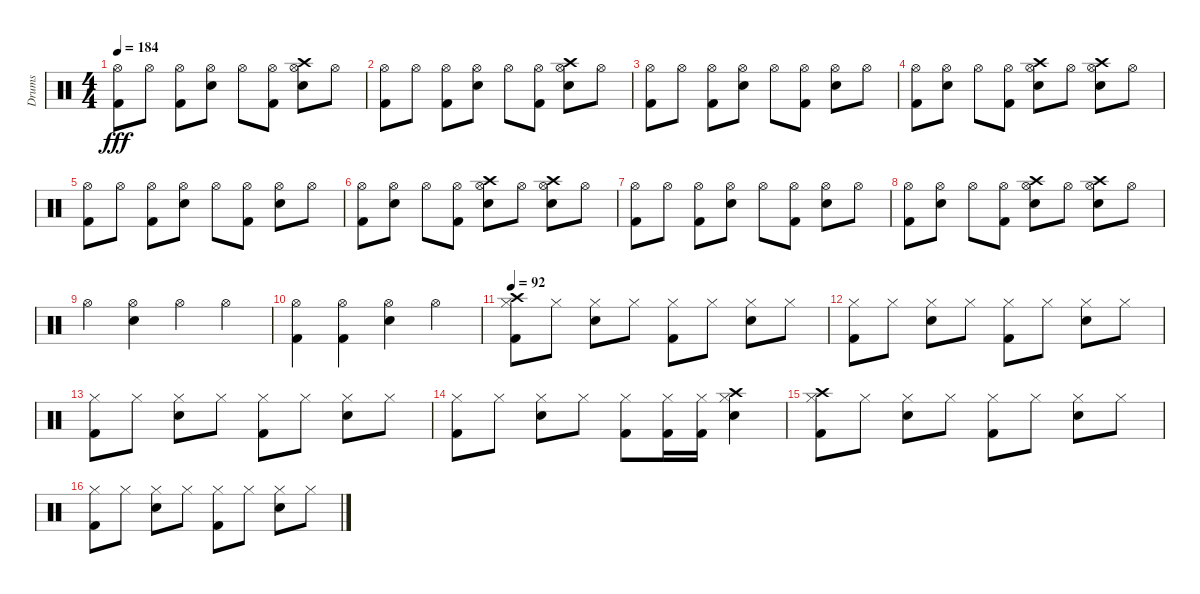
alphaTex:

\track ("Drums" "Drums") {instrument percussion}
\staff {score}
\articulation defaults
\ts (4 4)
\tempo 184
\clef neutral
\ks c
("Hi-Hat (open)" "Kick (hit) 2").8{dy fff} "Hi-Hat (open)".8 ("Hi-Hat (open)" "Kick (hit) 2").8 ("Hi-Hat (open)" "Snare (hit) 2").8 "Hi-Hat (open)".8 ("Hi-Hat (open)" "Kick (hit) 2").8 ("Hi-Hat (open)" "Snare (hit) 2" "Crash high (hit)").8 "Hi-Hat (open)".8 |
("Hi-Hat (open)" "Kick (hit) 2").8 "Hi-Hat (open)".8 ("Hi-Hat (open)" "Kick (hit) 2").8 ("Hi-Hat (open)" "Snare (hit) 2").8 "Hi-Hat (open)".8 ("Hi-Hat (open)" "Kick (hit) 2").8 ("Hi-Hat (open)" "Snare (hit) 2" "Crash high (hit)").8 "Hi-Hat (open)".8 |
("Hi-Hat (open)" "Kick (hit) 2").8 "Hi-Hat (open)".8 ("Hi-Hat (open)" "Kick (hit) 2").8 ("Hi-Hat (open)" "Snare (hit) 2").8 "Hi-Hat (open)".8 ("Hi-Hat (open)" "Kick (hit) 2").8 ("Hi-Hat (open)" "Snare (hit) 2").8 "Hi-Hat (open)".8 |
("Hi-Hat (open)" "Kick (hit) 2").8 ("Hi-Hat (open)" "Snare (hit) 2").8 "Hi-Hat (open)".8 ("Hi-Hat (open)" "Kick (hit) 2").8 ("Hi-Hat (open)" "Snare (hit) 2" "Crash high (hit)").8 "Hi-Hat (open)".8 ("Hi-Hat (open)" "Snare (hit) 2" "Crash high (hit)").8 "Hi-Hat (open)".8 |
("Hi-Hat (open)" "Kick (hit) 2").8 "Hi-Hat (open)".8 ("Hi-Hat (open)" "Kick (hit) 2").8 ("Hi-Hat (open)" "Snare (hit) 2").8 "Hi-Hat (open)".8 ("Hi-Hat (open)" "Kick (hit) 2").8 ("Hi-Hat (open)" "Snare (hit) 2").8 "Hi-Hat (open)".8 |
("Hi-Hat (open)" "Kick (hit) 2").8 ("Hi-Hat (open)" "Snare (hit) 2").8 "Hi-Hat (open)".8 ("Hi-Hat (open)" "Kick (hit) 2").8 ("Hi-Hat (open)" "Snare (hit) 2" "Crash high (hit)").8 "Hi-Hat (open)".8 ("Hi-Hat (open)" "Snare (hit) 2" "Crash high (hit)").8 "Hi-Hat (open)".8 |
("Hi-Hat (open)" "Kick (hit) 2").8 "Hi-Hat (open)".8 ("Hi-Hat (open)" "Kick (hit) 2").8 ("Hi-Hat (open)" "Snare (hit) 2").8 "Hi-Hat (open)".8 ("Hi-Hat (open)" "Kick (hit) 2").8 ("Hi-Hat (open)" "Snare (hit) 2").8 "Hi-Hat (open)".8 |
("Hi-Hat (open)" "Kick (hit) 2").8 ("Hi-Hat (open)" "Snare (hit) 2").8 "Hi-Hat (open)".8 ("Hi-Hat (open)" "Kick (hit) 2").8 ("Hi-Hat (open)" "Snare (hit) 2" "Crash high (hit)").8 "Hi-Hat (open)".8 ("Hi-Hat (open)" "Snare (hit) 2" "Crash high (hit)").8 "Hi-Hat (open)".8 |
"Hi-Hat (open)".4 ("Hi-Hat (open)" "Snare (hit) 2").4 "Hi-Hat (open)".4 "Hi-Hat (open)".4 |
("Hi-Hat (open)" "Kick (hit) 2").4 ("Hi-Hat (open)" "Kick (hit) 2").4 ("Hi-Hat (open)" "Snare (hit) 2").4 "Hi-Hat (open)".4 |
\tempo 92
("Hi-Hat (closed)" "Kick (hit) 2" "Crash high (hit)").8 "Hi-Hat (closed)".8 ("Hi-Hat (closed)" "Snare (hit) 2").8 "Hi-Hat (closed)".8 ("Hi-Hat (closed)" "Kick (hit) 2").8 "Hi-Hat (closed)".8 ("Hi-Hat (closed)" "Snare (hit) 2").8 "Hi-Hat (closed)".8 |
("Hi-Hat (closed)" "Kick (hit) 2").8 "Hi-Hat (closed)".8 ("Hi-Hat (closed)" "Snare (hit) 2").8 "Hi-Hat (closed)".8 ("Hi-Hat (closed)" "Kick (hit) 2").8 "Hi-Hat (closed)".8 ("Hi-Hat (closed)" "Snare (hit) 2").8 "Hi-Hat (closed)".8 |
("Hi-Hat (closed)" "Kick (hit) 2").8 "Hi-Hat (closed)".8 ("Hi-Hat (closed)" "Snare (hit) 2").8 "Hi-Hat (closed)".8 ("Hi-Hat (closed)" "Kick (hit) 2").8 "Hi-Hat (closed)".8 ("Hi-Hat (closed)" "Snare (hit) 2").8 "Hi-Hat (closed)".8 |
("Hi-Hat (closed)" "Kick (hit) 2").8 "Hi-Hat (closed)".8 ("Hi-Hat (closed)" "Snare (hit) 2").8 "Hi-Hat (closed)".8 ("Hi-Hat (closed)" "Kick (hit) 2").8 ("Hi-Hat (closed)" "Kick (hit) 2").16 ("Hi-Hat (closed)" "Kick (hit) 2").16 ("Hi-Hat (closed)" "Snare (hit) 2" "Crash high (hit)").4 |
("Hi-Hat (closed)" "Kick (hit) 2" "Crash high (hit)").8 "Hi-Hat (closed)".8 ("Hi-Hat (closed)" "Snare (hit) 2").8 "Hi-Hat (closed)".8 ("Hi-Hat (closed)" "Kick (hit) 2").8 "Hi-Hat (closed)".8 ("Hi-Hat (closed)" "Snare (hit) 2").8 "Hi-Hat (closed)".8 |
("Hi-Hat (closed)" "Kick (hit) 2").8 "Hi-Hat (closed)".8 ("Hi-Hat (closed)" "Snare (hit) 2").8 "Hi-Hat (closed)".8 ("Hi-Hat (closed)" "Kick (hit) 2").8 "Hi-Hat (closed)".8 ("Hi-Hat (closed)" "Snare (hit) 2").8 "Hi-Hat (closed)".8
